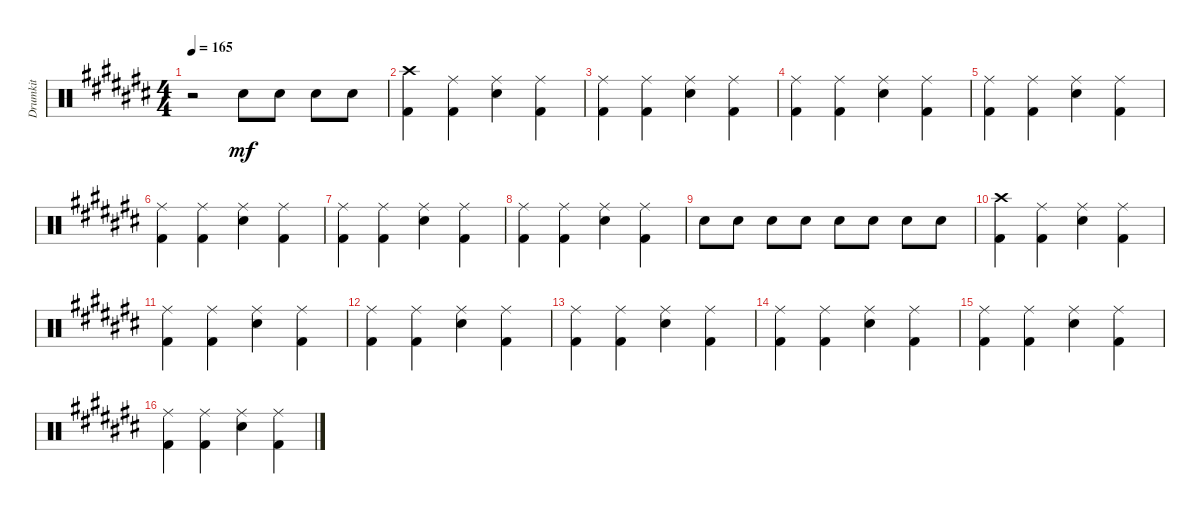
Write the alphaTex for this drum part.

\track ("Drumkit" "Drumkit") {instrument percussion}
\staff {score}
\articulation defaults
\ts (4 4)
\tempo 165
\clef neutral
\ks c#
r.2{dy mf} "Snare (hit) 2".8 "Snare (hit) 2".8 "Snare (hit) 2".8 "Snare (hit) 2".8 |
("Kick (hit) 2" "Crash high (hit)").4 ("Kick (hit) 2" "Ride (middle)").4 ("Snare (hit) 2" "Ride (middle)").4 ("Kick (hit) 2" "Ride (middle)").4 |
("Kick (hit) 2" "Ride (middle)").4 ("Kick (hit) 2" "Ride (middle)").4 ("Snare (hit) 2" "Ride (middle)").4 ("Kick (hit) 2" "Ride (middle)").4 |
("Kick (hit) 2" "Ride (middle)").4 ("Kick (hit) 2" "Ride (middle)").4 ("Snare (hit) 2" "Ride (middle)").4 ("Kick (hit) 2" "Ride (middle)").4 |
("Kick (hit) 2" "Ride (middle)").4 ("Kick (hit) 2" "Ride (middle)").4 ("Snare (hit) 2" "Ride (middle)").4 ("Kick (hit) 2" "Ride (middle)").4 |
("Kick (hit) 2" "Ride (middle)").4 ("Kick (hit) 2" "Ride (middle)").4 ("Snare (hit) 2" "Ride (middle)").4 ("Kick (hit) 2" "Ride (middle)").4 |
("Kick (hit) 2" "Ride (middle)").4 ("Kick (hit) 2" "Ride (middle)").4 ("Snare (hit) 2" "Ride (middle)").4 ("Kick (hit) 2" "Ride (middle)").4 |
("Kick (hit) 2" "Ride (middle)").4 ("Kick (hit) 2" "Ride (middle)").4 ("Snare (hit) 2" "Ride (middle)").4 ("Kick (hit) 2" "Ride (middle)").4 |
"Snare (hit) 2".8 "Snare (hit) 2".8 "Snare (hit) 2".8 "Snare (hit) 2".8 "Snare (hit) 2".8 "Snare (hit) 2".8 "Snare (hit) 2".8 "Snare (hit) 2".8 |
("Kick (hit) 2" "Crash high (hit)").4 ("Kick (hit) 2" "Ride (middle)").4 ("Snare (hit) 2" "Ride (middle)").4 ("Kick (hit) 2" "Ride (middle)").4 |
("Kick (hit) 2" "Ride (middle)").4 ("Kick (hit) 2" "Ride (middle)").4 ("Snare (hit) 2" "Ride (middle)").4 ("Kick (hit) 2" "Ride (middle)").4 |
("Kick (hit) 2" "Ride (middle)").4 ("Kick (hit) 2" "Ride (middle)").4 ("Snare (hit) 2" "Ride (middle)").4 ("Kick (hit) 2" "Ride (middle)").4 |
("Kick (hit) 2" "Ride (middle)").4 ("Kick (hit) 2" "Ride (middle)").4 ("Snare (hit) 2" "Ride (middle)").4 ("Kick (hit) 2" "Ride (middle)").4 |
("Kick (hit) 2" "Ride (middle)").4 ("Kick (hit) 2" "Ride (middle)").4 ("Snare (hit) 2" "Ride (middle)").4 ("Kick (hit) 2" "Ride (middle)").4 |
("Kick (hit) 2" "Ride (middle)").4 ("Kick (hit) 2" "Ride (middle)").4 ("Snare (hit) 2" "Ride (middle)").4 ("Kick (hit) 2" "Ride (middle)").4 |
("Kick (hit) 2" "Ride (middle)").4 ("Kick (hit) 2" "Ride (middle)").4 ("Snare (hit) 2" "Ride (middle)").4 ("Kick (hit) 2" "Ride (middle)").4
